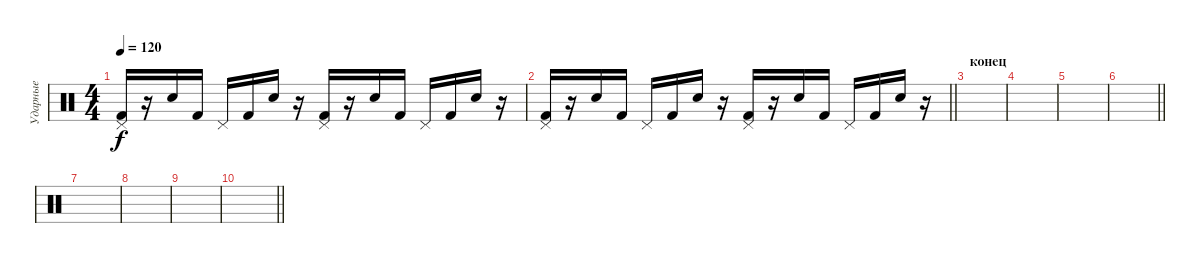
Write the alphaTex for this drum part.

\track ("Ударные" "Ударные") {instrument percussion}
\staff {score}
\articulation defaults
\ts (4 4)
\tempo 120
\clef neutral
\ks c
("Pedal Hi-Hat (hit)" "Kick (hit) 2").16{dy f} r.16 "Electric Snare (hit)".16 "Kick (hit) 2".16 "Pedal Hi-Hat (hit)".16 "Kick (hit) 2".16 "Electric Snare (hit)".16 r.16 ("Pedal Hi-Hat (hit)" "Kick (hit) 2").16 r.16 "Electric Snare (hit)".16 "Kick (hit) 2".16 "Pedal Hi-Hat (hit)".16 "Kick (hit) 2".16 "Electric Snare (hit)".16 r.16 |
\barLineRight lightlight
("Pedal Hi-Hat (hit)" "Kick (hit) 2").16 r.16 "Electric Snare (hit)".16 "Kick (hit) 2".16 "Pedal Hi-Hat (hit)".16 "Kick (hit) 2".16 "Electric Snare (hit)".16 r.16 ("Pedal Hi-Hat (hit)" "Kick (hit) 2").16 r.16 "Electric Snare (hit)".16 "Kick (hit) 2".16 "Pedal Hi-Hat (hit)".16 "Kick (hit) 2".16 "Electric Snare (hit)".16 r.16 |
\section ("" "конец")
|
|
|
\barLineRight lightlight
|
|
|
|
\barLineRight lightlight
